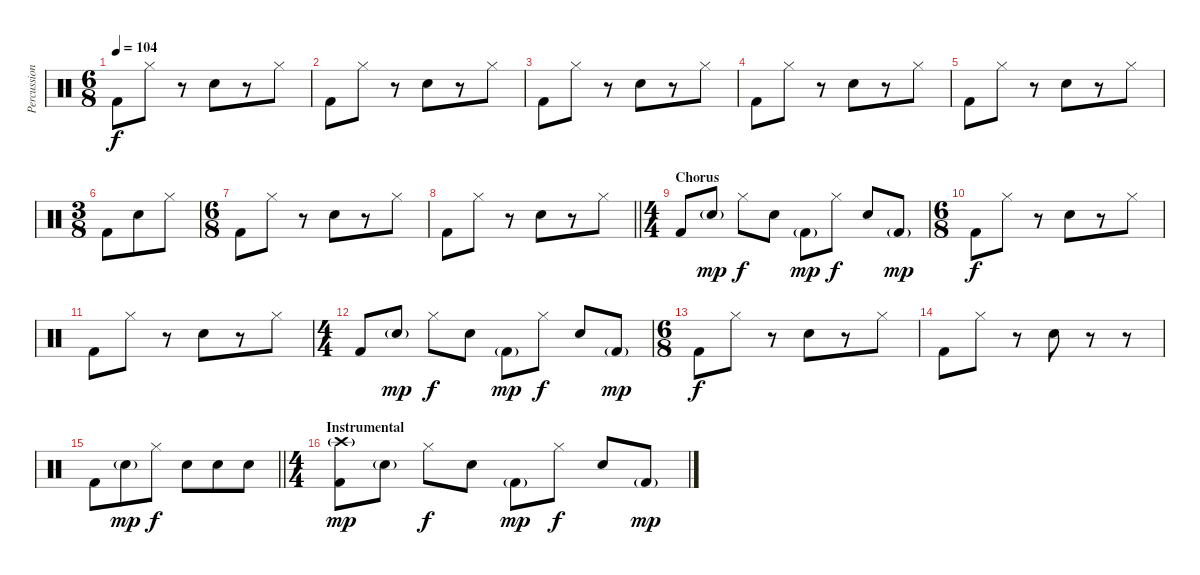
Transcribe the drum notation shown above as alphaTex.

\track ("Percussion" "Percussion") {instrument percussion}
\staff {score}
\articulation defaults
\ts (6 8)
\tempo 104
\clef neutral
\ks c "Kick (hit) 2".8{dy f} "Hi-Hat (closed)".8
r.8 "Snare (hit) 2".8 r.8 "Hi-Hat (closed)".8 |
"Kick (hit) 2".8 "Hi-Hat (closed)".8 r.8 "Snare (hit) 2".8 r.8 "Hi-Hat (closed)".8 |
"Kick (hit) 2".8 "Hi-Hat (closed)".8 r.8 "Snare (hit) 2".8 r.8 "Hi-Hat (closed)".8 |
"Kick (hit) 2".8 "Hi-Hat (closed)".8 r.8 "Snare (hit) 2".8 r.8 "Hi-Hat (closed)".8 |
"Kick (hit) 2".8 "Hi-Hat (closed)".8 r.8 "Snare (hit) 2".8 r.8 "Hi-Hat (closed)".8 |
\ts (3 8)
"Kick (hit) 2".8 "Snare (hit) 2".8 "Hi-Hat (closed)".8 |
\ts (6 8)
"Kick (hit) 2".8 "Hi-Hat (closed)".8 r.8 "Snare (hit) 2".8 r.8 "Hi-Hat (closed)".8 |
\barLineRight lightlight "Kick (hit) 2".8 "Hi-Hat (closed)".8
r.8 "Snare (hit) 2".8 r.8 "Hi-Hat (closed)".8 |
\ts (4 4)
\section ("" "Chorus")
"Kick (hit) 2".8 "Snare (hit) 2"{g}.8{dy mp} "Hi-Hat (closed)".8{dy f} "Snare (hit) 2".8 "Kick (hit) 2"{g}.8{dy mp} "Hi-Hat (closed)".8{dy f} "Snare (hit) 2".8 "Kick (hit) 2"{g}.8{dy mp} |
\ts (6 8)
"Kick (hit) 2".8{dy f} "Hi-Hat (closed)".8 r.8 "Snare (hit) 2".8 r.8 "Hi-Hat (closed)".8 |
"Kick (hit) 2".8 "Hi-Hat (closed)".8 r.8 "Snare (hit) 2".8 r.8 "Hi-Hat (closed)".8 |
\ts (4 4)
"Kick (hit) 2".8 "Snare (hit) 2"{g}.8{dy mp} "Hi-Hat (closed)".8{dy f} "Snare (hit) 2".8 "Kick (hit) 2"{g}.8{dy mp} "Hi-Hat (closed)".8{dy f} "Snare (hit) 2".8 "Kick (hit) 2"{g}.8{dy mp} |
\ts (6 8)
"Kick (hit) 2".8{dy f} "Hi-Hat (closed)".8 r.8 "Snare (hit) 2".8 r.8 "Hi-Hat (closed)".8 |
"Kick (hit) 2".8 "Hi-Hat (closed)".8 r.8 "Snare (hit) 2".8 r.8 r.8 |
\barLineRight lightlight "Kick (hit) 2".8 "Snare (hit) 2"{g}.8{dy mp} "Hi-Hat (closed)".8{dy f} "Snare (hit) 2".8 "Snare (hit) 2".8 "Snare (hit) 2".8
|
\ts (4 4)
\section ("" "Instrumental")
("Crash high (hit)"{g} "Kick (hit) 2").8{dy mp} "Snare (hit) 2"{g}.8 "Hi-Hat (closed)".8{dy f} "Snare (hit) 2".8 "Kick (hit) 2"{g}.8{dy mp} "Hi-Hat (closed)".8{dy f} "Snare (hit) 2".8 "Kick (hit) 2"{g}.8{dy mp}
